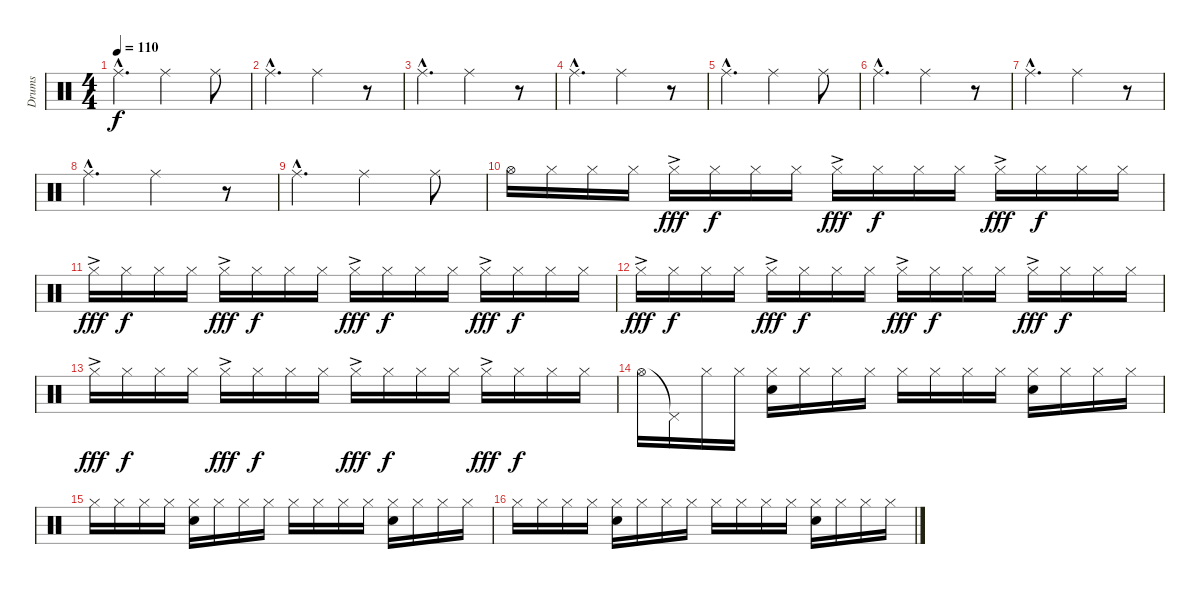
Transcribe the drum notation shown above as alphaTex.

\track ("Drums" "Drums") {instrument percussion}
\staff {score}
\articulation defaults
\ts (4 4)
\tempo 110
\clef neutral
\ks c "Ride (middle)"{hac}.4{d dy f} "Ride (middle)".2 "Ride (middle)".8
|
"Ride (middle)"{hac}.4{d} "Ride (middle)".2 r.8 |
"Ride (middle)"{hac}.4{d} "Ride (middle)".2 r.8 |
"Ride (middle)"{hac}.4{d} "Ride (middle)".2 r.8 |
"Ride (middle)"{hac}.4{d} "Ride (middle)".2 "Ride (middle)".8 |
"Ride (middle)"{hac}.4{d} "Ride (middle)".2 r.8 |
"Ride (middle)"{hac}.4{d} "Ride (middle)".2 r.8 |
"Ride (middle)"{hac}.4{d} "Ride (middle)".2 r.8 |
"Ride (middle)"{hac}.4{d} "Ride (middle)".2 "Ride (middle)".8 |
"Hi-Hat (open)".16 "Hi-Hat (closed)".16 "Hi-Hat (closed)".16 "Hi-Hat (closed)".16 "Hi-Hat (closed)"{ac}.16{dy fff} "Hi-Hat (closed)".16{dy f} "Hi-Hat (closed)".16 "Hi-Hat (closed)".16 "Hi-Hat (closed)"{ac}.16{dy fff} "Hi-Hat (closed)".16{dy f} "Hi-Hat (closed)".16 "Hi-Hat (closed)".16 "Hi-Hat (closed)"{ac}.16{dy fff} "Hi-Hat (closed)".16{dy f} "Hi-Hat (closed)".16 "Hi-Hat (closed)".16 |
"Hi-Hat (closed)"{ac}.16{dy fff} "Hi-Hat (closed)".16{dy f} "Hi-Hat (closed)".16 "Hi-Hat (closed)".16 "Hi-Hat (closed)"{ac}.16{dy fff} "Hi-Hat (closed)".16{dy f} "Hi-Hat (closed)".16 "Hi-Hat (closed)".16 "Hi-Hat (closed)"{ac}.16{dy fff} "Hi-Hat (closed)".16{dy f} "Hi-Hat (closed)".16 "Hi-Hat (closed)".16 "Hi-Hat (closed)"{ac}.16{dy fff} "Hi-Hat (closed)".16{dy f} "Hi-Hat (closed)".16 "Hi-Hat (closed)".16 |
"Hi-Hat (closed)"{ac}.16{dy fff} "Hi-Hat (closed)".16{dy f} "Hi-Hat (closed)".16 "Hi-Hat (closed)".16 "Hi-Hat (closed)"{ac}.16{dy fff} "Hi-Hat (closed)".16{dy f} "Hi-Hat (closed)".16 "Hi-Hat (closed)".16 "Hi-Hat (closed)"{ac}.16{dy fff} "Hi-Hat (closed)".16{dy f} "Hi-Hat (closed)".16 "Hi-Hat (closed)".16 "Hi-Hat (closed)"{ac}.16{dy fff} "Hi-Hat (closed)".16{dy f} "Hi-Hat (closed)".16 "Hi-Hat (closed)".16 |
"Hi-Hat (closed)"{ac}.16{dy fff} "Hi-Hat (closed)".16{dy f} "Hi-Hat (closed)".16 "Hi-Hat (closed)".16 "Hi-Hat (closed)"{ac}.16{dy fff} "Hi-Hat (closed)".16{dy f} "Hi-Hat (closed)".16 "Hi-Hat (closed)".16 "Hi-Hat (closed)"{ac}.16{dy fff} "Hi-Hat (closed)".16{dy f} "Hi-Hat (closed)".16 "Hi-Hat (closed)".16 "Hi-Hat (closed)"{ac}.16{dy fff} "Hi-Hat (closed)".16{dy f} "Hi-Hat (closed)".16 "Hi-Hat (closed)".16 |
"Hi-Hat (open)".16 "Pedal Hi-Hat (hit)"{t}.16 "Hi-Hat (closed)".16 "Hi-Hat (closed)".16 ("Hi-Hat (closed)" "Electric Snare (hit)").16 "Hi-Hat (closed)".16 "Hi-Hat (closed)".16 "Hi-Hat (closed)".16 "Hi-Hat (closed)".16 "Hi-Hat (closed)".16 "Hi-Hat (closed)".16 "Hi-Hat (closed)".16 ("Hi-Hat (closed)" "Electric Snare (hit)").16 "Hi-Hat (closed)".16 "Hi-Hat (closed)".16 "Hi-Hat (closed)".16 |
"Hi-Hat (closed)".16 "Hi-Hat (closed)".16 "Hi-Hat (closed)".16 "Hi-Hat (closed)".16 ("Hi-Hat (closed)" "Electric Snare (hit)").16 "Hi-Hat (closed)".16 "Hi-Hat (closed)".16 "Hi-Hat (closed)".16 "Hi-Hat (closed)".16 "Hi-Hat (closed)".16 "Hi-Hat (closed)".16 "Hi-Hat (closed)".16 ("Hi-Hat (closed)" "Electric Snare (hit)").16 "Hi-Hat (closed)".16 "Hi-Hat (closed)".16 "Hi-Hat (closed)".16 |
"Hi-Hat (closed)".16 "Hi-Hat (closed)".16 "Hi-Hat (closed)".16 "Hi-Hat (closed)".16 ("Hi-Hat (closed)" "Electric Snare (hit)").16 "Hi-Hat (closed)".16 "Hi-Hat (closed)".16 "Hi-Hat (closed)".16 "Hi-Hat (closed)".16 "Hi-Hat (closed)".16 "Hi-Hat (closed)".16 "Hi-Hat (closed)".16 ("Hi-Hat (closed)" "Electric Snare (hit)").16 "Hi-Hat (closed)".16 "Hi-Hat (closed)".16 "Hi-Hat (closed)".16
